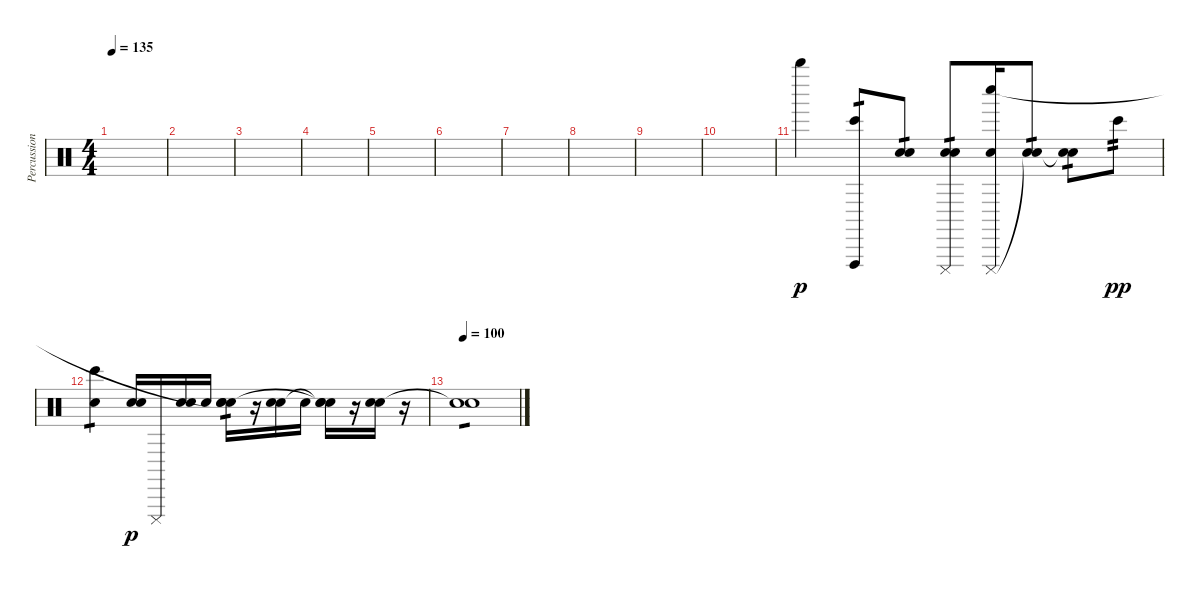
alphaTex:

\track ("Percussion" "Percussion") {instrument percussion}
\staff {score}
\articulation defaults
\ts (4 4)
\tempo 135
\clef neutral
\ks c
|
|
|
|
|
|
|
|
|
|
"Whistle high (hit)".4{dy p} ("Vibraslap (hit)" "Bongo High (hit)").8{tp 1} ("Hand Clap (hit)" "Hand Clap (hit)").8{tp 1} ("Hand Clap (hit)" "Hand Clap (hit)" "Cuica (mute)").8{tp 1} ("Hand Clap (hit)" "Cuica (mute)" "Whistle low (hit)").16 ("Hand Clap (hit)" "Hand Clap (hit)"{t}).8{tp 1} ("Hand Clap (hit)" "Snare (hit)"{t}).8{tp 1} "Bongo High (hit)".8{tp 2 dy pp} |
("Hand Clap (hit)" "Bongo High (hit)").4{tp 1} ("Hand Clap (hit)" "Hand Clap (hit)").16{dy p} "Cuica (mute)".16 ("Hand Clap (hit)" "Hand Clap (hit)").16 "Hand Clap (hit)".16 ("Hand Clap (hit)" "Hand Clap (hit)" "Snare (hit)"{t}).16{tp 1} r.16 ("Hand Clap (hit)" "Hand Clap (hit)").16 "Hand Clap (hit)".16 ("Hand Clap (hit)" "Snare (hit)"{t} "Snare (hit)"{t}).16 r.16 ("Hand Clap (hit)" "Hand Clap (hit)").16 r.16 |
\tempo 100
("Hand Clap (hit)" "Snare (hit)"{t}).1{tp 1}
